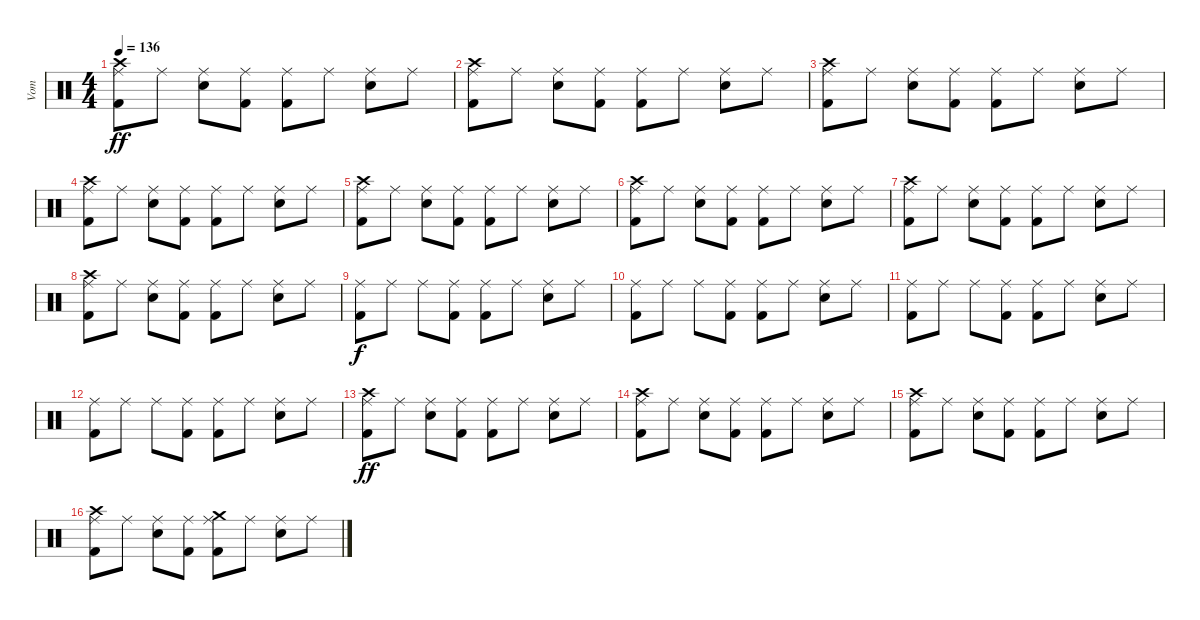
\track ("Vom" "Vom") {instrument percussion}
\staff {score}
\articulation defaults
\ts (4 4)
\tempo 136
\clef neutral
\ks c
("Ride (middle)" "Kick (hit) 2" "Crash high (hit)").8{dy ff} "Ride (middle)".8 ("Ride (middle)" "Snare (hit) 2").8 ("Ride (middle)" "Kick (hit) 2").8 ("Ride (middle)" "Kick (hit) 2").8 "Ride (middle)".8 ("Ride (middle)" "Snare (hit) 2").8 "Ride (middle)".8 |
("Ride (middle)" "Kick (hit) 2" "Crash high (hit)").8 "Ride (middle)".8 ("Ride (middle)" "Snare (hit) 2").8 ("Ride (middle)" "Kick (hit) 2").8 ("Ride (middle)" "Kick (hit) 2").8 "Ride (middle)".8 ("Ride (middle)" "Snare (hit) 2").8 "Ride (middle)".8 |
("Ride (middle)" "Kick (hit) 2" "Crash high (hit)").8 "Ride (middle)".8 ("Ride (middle)" "Snare (hit) 2").8 ("Ride (middle)" "Kick (hit) 2").8 ("Ride (middle)" "Kick (hit) 2").8 "Ride (middle)".8 ("Ride (middle)" "Snare (hit) 2").8 "Ride (middle)".8 |
("Ride (middle)" "Kick (hit) 2" "Crash high (hit)").8 "Ride (middle)".8 ("Ride (middle)" "Snare (hit) 2").8 ("Ride (middle)" "Kick (hit) 2").8 ("Ride (middle)" "Kick (hit) 2").8 "Ride (middle)".8 ("Ride (middle)" "Snare (hit) 2").8 "Ride (middle)".8 |
("Ride (middle)" "Kick (hit) 2" "Crash high (hit)").8 "Ride (middle)".8 ("Ride (middle)" "Snare (hit) 2").8 ("Ride (middle)" "Kick (hit) 2").8 ("Ride (middle)" "Kick (hit) 2").8 "Ride (middle)".8 ("Ride (middle)" "Snare (hit) 2").8 "Ride (middle)".8 |
("Ride (middle)" "Kick (hit) 2" "Crash high (hit)").8 "Ride (middle)".8 ("Ride (middle)" "Snare (hit) 2").8 ("Ride (middle)" "Kick (hit) 2").8 ("Ride (middle)" "Kick (hit) 2").8 "Ride (middle)".8 ("Ride (middle)" "Snare (hit) 2").8 "Ride (middle)".8 |
("Ride (middle)" "Kick (hit) 2" "Crash high (hit)").8 "Ride (middle)".8 ("Ride (middle)" "Snare (hit) 2").8 ("Ride (middle)" "Kick (hit) 2").8 ("Ride (middle)" "Kick (hit) 2").8 "Ride (middle)".8 ("Ride (middle)" "Snare (hit) 2").8 "Ride (middle)".8 |
("Ride (middle)" "Kick (hit) 2" "Crash high (hit)").8 "Ride (middle)".8 ("Ride (middle)" "Snare (hit) 2").8 ("Ride (middle)" "Kick (hit) 2").8 ("Ride (middle)" "Kick (hit) 2").8 "Ride (middle)".8 ("Ride (middle)" "Snare (hit) 2").8 "Ride (middle)".8 |
("Ride (middle)" "Kick (hit) 2").8{dy f} "Ride (middle)".8 "Ride (middle)".8 ("Ride (middle)" "Kick (hit) 2").8 ("Ride (middle)" "Kick (hit) 2").8 "Ride (middle)".8 ("Ride (middle)" "Snare (hit) 2").8 "Ride (middle)".8 |
("Ride (middle)" "Kick (hit) 2").8 "Ride (middle)".8 "Ride (middle)".8 ("Ride (middle)" "Kick (hit) 2").8 ("Ride (middle)" "Kick (hit) 2").8 "Ride (middle)".8 ("Ride (middle)" "Snare (hit) 2").8 "Ride (middle)".8 |
("Ride (middle)" "Kick (hit) 2").8 "Ride (middle)".8 "Ride (middle)".8 ("Ride (middle)" "Kick (hit) 2").8 ("Ride (middle)" "Kick (hit) 2").8 "Ride (middle)".8 ("Ride (middle)" "Snare (hit) 2").8 "Ride (middle)".8 |
("Ride (middle)" "Kick (hit) 2").8 "Ride (middle)".8 "Ride (middle)".8 ("Ride (middle)" "Kick (hit) 2").8 ("Ride (middle)" "Kick (hit) 2").8 "Ride (middle)".8 ("Ride (middle)" "Snare (hit) 2").8 "Ride (middle)".8 |
("Ride (middle)" "Kick (hit) 2" "Crash high (hit)").8{dy ff} "Ride (middle)".8 ("Ride (middle)" "Snare (hit) 2").8 ("Ride (middle)" "Kick (hit) 2").8 ("Ride (middle)" "Kick (hit) 2").8 "Ride (middle)".8 ("Ride (middle)" "Snare (hit) 2").8 "Ride (middle)".8 |
("Ride (middle)" "Kick (hit) 2" "Crash high (hit)").8 "Ride (middle)".8 ("Ride (middle)" "Snare (hit) 2").8 ("Ride (middle)" "Kick (hit) 2").8 ("Ride (middle)" "Kick (hit) 2").8 "Ride (middle)".8 ("Ride (middle)" "Snare (hit) 2").8 "Ride (middle)".8 |
("Ride (middle)" "Kick (hit) 2" "Crash high (hit)").8 "Ride (middle)".8 ("Ride (middle)" "Snare (hit) 2").8 ("Ride (middle)" "Kick (hit) 2").8 ("Ride (middle)" "Kick (hit) 2").8 "Ride (middle)".8 ("Ride (middle)" "Snare (hit) 2").8 "Ride (middle)".8 |
("Ride (middle)" "Kick (hit) 2" "Crash high (hit)").8 "Ride (middle)".8 ("Ride (middle)" "Snare (hit) 2").8 ("Ride (middle)" "Kick (hit) 2").8 ("Ride (middle)" "Kick (hit) 2" "Crash medium (hit)").8 "Ride (middle)".8 ("Ride (middle)" "Snare (hit) 2").8 "Ride (middle)".8
